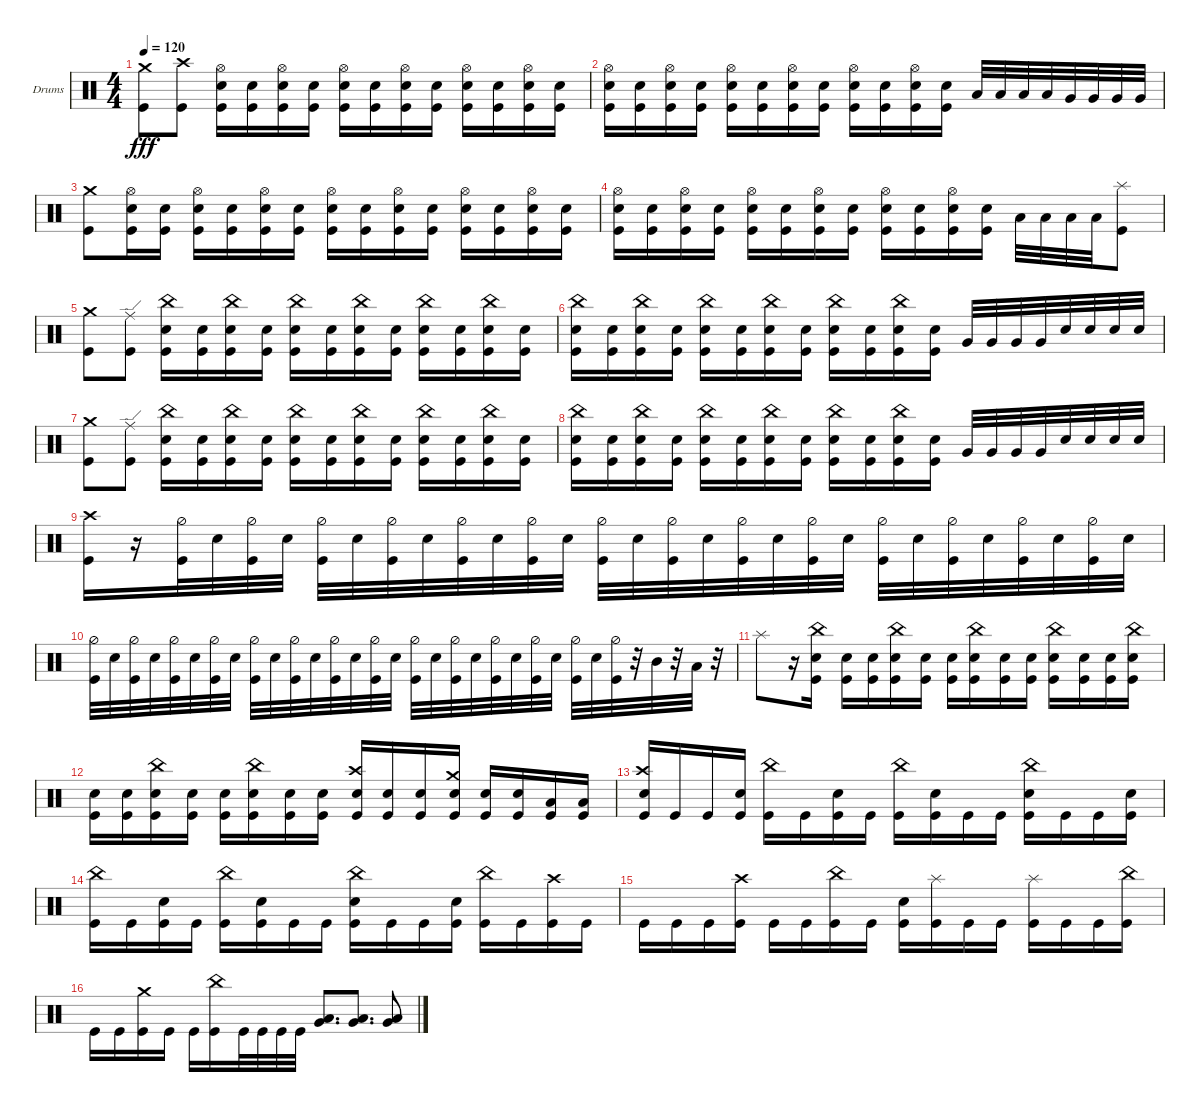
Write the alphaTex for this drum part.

\bracketExtendMode groupsimilarinstruments
\firstSystemTrackNameOrientation horizontal
\otherSystemsTrackNameOrientation horizontal
\track ("Drumkit" "Drums") {instrument percussion}
\staff {score}
\articulation defaults
\ts (4 4)
\tempo 120
\clef neutral
\ks c
("Kick (hit)" "Crash medium (hit)").8{dy fff} ("Crash high (hit)" "Kick (hit)").8 ("Kick (hit)" "Snare (hit) 2" "Hi-Hat (open)").16 ("Kick (hit)" "Snare (hit) 2").16 ("Kick (hit)" "Snare (hit) 2" "Hi-Hat (open)").16 ("Kick (hit)" "Snare (hit) 2").16 ("Kick (hit)" "Snare (hit) 2" "Hi-Hat (open)").16 ("Kick (hit)" "Snare (hit) 2").16 ("Kick (hit)" "Snare (hit) 2" "Hi-Hat (open)").16 ("Kick (hit)" "Snare (hit) 2").16 ("Kick (hit)" "Snare (hit) 2" "Hi-Hat (open)").16 ("Kick (hit)" "Snare (hit) 2").16 ("Kick (hit)" "Snare (hit) 2" "Hi-Hat (open)").16 ("Kick (hit)" "Snare (hit) 2").16 |
("Kick (hit)" "Snare (hit) 2" "Hi-Hat (open)").16 ("Kick (hit)" "Snare (hit) 2").16 ("Kick (hit)" "Snare (hit) 2" "Hi-Hat (open)").16 ("Kick (hit)" "Snare (hit) 2").16 ("Kick (hit)" "Snare (hit) 2" "Hi-Hat (open)").16 ("Kick (hit)" "Snare (hit) 2").16 ("Kick (hit)" "Snare (hit) 2" "Hi-Hat (open)").16 ("Kick (hit)" "Snare (hit) 2").16 ("Kick (hit)" "Snare (hit) 2" "Hi-Hat (open)").16 ("Kick (hit)" "Snare (hit) 2").16 ("Kick (hit)" "Snare (hit) 2" "Hi-Hat (open)").16 ("Kick (hit)" "Snare (hit) 2").16 "Low Tom (hit)".32 "Low Tom (hit)".32 "Low Tom (hit)".32 "Low Tom (hit)".32 "Very Low Tom (hit)".32 "Very Low Tom (hit)".32 "Very Low Tom (hit)".32 "Very Low Tom (hit)".32 |
("Kick (hit)" "Crash medium (hit)").8 ("Kick (hit)" "Snare (hit) 2" "Hi-Hat (open)").16 ("Kick (hit)" "Snare (hit) 2").16 ("Kick (hit)" "Snare (hit) 2" "Hi-Hat (open)").16 ("Kick (hit)" "Snare (hit) 2").16 ("Kick (hit)" "Snare (hit) 2" "Hi-Hat (open)").16 ("Kick (hit)" "Snare (hit) 2").16 ("Kick (hit)" "Snare (hit) 2" "Hi-Hat (open)").16 ("Kick (hit)" "Snare (hit) 2").16 ("Kick (hit)" "Snare (hit) 2" "Hi-Hat (open)").16 ("Kick (hit)" "Snare (hit) 2").16 ("Kick (hit)" "Snare (hit) 2" "Hi-Hat (open)").16 ("Kick (hit)" "Snare (hit) 2").16 ("Kick (hit)" "Snare (hit) 2" "Hi-Hat (open)").16 ("Kick (hit)" "Snare (hit) 2").16 |
("Kick (hit)" "Snare (hit) 2" "Hi-Hat (open)").16 ("Kick (hit)" "Snare (hit) 2").16 ("Kick (hit)" "Snare (hit) 2" "Hi-Hat (open)").16 ("Kick (hit)" "Snare (hit) 2").16 ("Kick (hit)" "Snare (hit) 2" "Hi-Hat (open)").16 ("Kick (hit)" "Snare (hit) 2").16 ("Kick (hit)" "Snare (hit) 2" "Hi-Hat (open)").16 ("Kick (hit)" "Snare (hit) 2").16 ("Kick (hit)" "Snare (hit) 2" "Hi-Hat (open)").16 ("Kick (hit)" "Snare (hit) 2").16 ("Kick (hit)" "Snare (hit) 2" "Hi-Hat (open)").16 ("Kick (hit)" "Snare (hit) 2").16 "Low Tom (hit)".32 "Low Tom (hit)".32 "Low Tom (hit)".32 "Low Tom (hit)".32 ("Kick (hit)" "Splash (hit)").8 |
("Kick (hit)" "Crash medium (hit)").8 ("Kick (hit)" "Ride (edge)").8 ("Kick (hit)" "Snare (hit) 2" "China (hit)").16 ("Kick (hit)" "Snare (hit) 2").16 ("Kick (hit)" "Snare (hit) 2" "China (hit)").16 ("Kick (hit)" "Snare (hit) 2").16 ("Kick (hit)" "Snare (hit) 2" "China (hit)").16 ("Kick (hit)" "Snare (hit) 2").16 ("Kick (hit)" "Snare (hit) 2" "China (hit)").16 ("Kick (hit)" "Snare (hit) 2").16 ("Kick (hit)" "Snare (hit) 2" "China (hit)").16 ("Kick (hit)" "Snare (hit) 2").16 ("Kick (hit)" "Snare (hit) 2" "China (hit)").16 ("Kick (hit)" "Snare (hit) 2").16 |
("Kick (hit)" "Snare (hit) 2" "China (hit)").16 ("Kick (hit)" "Snare (hit) 2").16 ("Kick (hit)" "Snare (hit) 2" "China (hit)").16 ("Kick (hit)" "Snare (hit) 2").16 ("Kick (hit)" "Snare (hit) 2" "China (hit)").16 ("Kick (hit)" "Snare (hit) 2").16 ("Kick (hit)" "Snare (hit) 2" "China (hit)").16 ("Kick (hit)" "Snare (hit) 2").16 ("Kick (hit)" "Snare (hit) 2" "China (hit)").16 ("Kick (hit)" "Snare (hit) 2").16 ("Kick (hit)" "Snare (hit) 2" "China (hit)").16 ("Kick (hit)" "Snare (hit) 2").16 "Very Low Tom (hit)".32 "Very Low Tom (hit)".32 "Very Low Tom (hit)".32 "Very Low Tom (hit)".32 "Snare (hit) 2".32 "Snare (hit) 2".32 "Snare (hit) 2".32 "Snare (hit) 2".32 |
("Kick (hit)" "Crash medium (hit)").8 ("Kick (hit)" "Ride (edge)").8 ("Kick (hit)" "Snare (hit) 2" "China (hit)").16 ("Kick (hit)" "Snare (hit) 2").16 ("Kick (hit)" "Snare (hit) 2" "China (hit)").16 ("Kick (hit)" "Snare (hit) 2").16 ("Kick (hit)" "Snare (hit) 2" "China (hit)").16 ("Kick (hit)" "Snare (hit) 2").16 ("Kick (hit)" "Snare (hit) 2" "China (hit)").16 ("Kick (hit)" "Snare (hit) 2").16 ("Kick (hit)" "Snare (hit) 2" "China (hit)").16 ("Kick (hit)" "Snare (hit) 2").16 ("Kick (hit)" "Snare (hit) 2" "China (hit)").16 ("Kick (hit)" "Snare (hit) 2").16 |
("Kick (hit)" "Snare (hit) 2" "China (hit)").16 ("Kick (hit)" "Snare (hit) 2").16 ("Kick (hit)" "Snare (hit) 2" "China (hit)").16 ("Kick (hit)" "Snare (hit) 2").16 ("Kick (hit)" "Snare (hit) 2" "China (hit)").16 ("Kick (hit)" "Snare (hit) 2").16 ("Kick (hit)" "Snare (hit) 2" "China (hit)").16 ("Kick (hit)" "Snare (hit) 2").16 ("Kick (hit)" "Snare (hit) 2" "China (hit)").16 ("Kick (hit)" "Snare (hit) 2").16 ("Kick (hit)" "Snare (hit) 2" "China (hit)").16 ("Kick (hit)" "Snare (hit) 2").16 "Very Low Tom (hit)".32 "Very Low Tom (hit)".32 "Very Low Tom (hit)".32 "Very Low Tom (hit)".32 "Snare (hit) 2".32 "Snare (hit) 2".32 "Snare (hit) 2".32 "Snare (hit) 2".32 |
("Kick (hit)" "Crash high (hit)").16 r.16 ("Kick (hit)" "Hi-Hat (half)").32 "Snare (hit) 2".32 ("Kick (hit)" "Hi-Hat (half)").32 "Snare (hit) 2".32 ("Kick (hit)" "Hi-Hat (half)").32 "Snare (hit) 2".32 ("Kick (hit)" "Hi-Hat (half)").32 "Snare (hit) 2".32 ("Kick (hit)" "Hi-Hat (half)").32 "Snare (hit) 2".32 ("Kick (hit)" "Hi-Hat (half)").32 "Snare (hit) 2".32 ("Kick (hit)" "Hi-Hat (half)").32 "Snare (hit) 2".32 ("Kick (hit)" "Hi-Hat (half)").32 "Snare (hit) 2".32 ("Kick (hit)" "Hi-Hat (half)").32 "Snare (hit) 2".32 ("Kick (hit)" "Hi-Hat (half)").32 "Snare (hit) 2".32 ("Kick (hit)" "Hi-Hat (half)").32 "Snare (hit) 2".32 ("Kick (hit)" "Hi-Hat (half)").32 "Snare (hit) 2".32 ("Kick (hit)" "Hi-Hat (half)").32 "Snare (hit) 2".32 ("Kick (hit)" "Hi-Hat (half)").32 "Snare (hit) 2".32 |
("Kick (hit)" "Hi-Hat (half)").32 "Snare (hit) 2".32 ("Kick (hit)" "Hi-Hat (half)").32 "Snare (hit) 2".32 ("Kick (hit)" "Hi-Hat (half)").32 "Snare (hit) 2".32 ("Kick (hit)" "Hi-Hat (half)").32 "Snare (hit) 2".32 ("Kick (hit)" "Hi-Hat (half)").32 "Snare (hit) 2".32 ("Kick (hit)" "Hi-Hat (half)").32 "Snare (hit) 2".32 ("Kick (hit)" "Hi-Hat (half)").32 "Snare (hit) 2".32 ("Kick (hit)" "Hi-Hat (half)").32 "Snare (hit) 2".32 ("Kick (hit)" "Hi-Hat (half)").32 "Snare (hit) 2".32 ("Kick (hit)" "Hi-Hat (half)").32 "Snare (hit) 2".32 ("Kick (hit)" "Hi-Hat (half)").32 "Snare (hit) 2".32 ("Kick (hit)" "Hi-Hat (half)").32 "Snare (hit) 2".32 ("Kick (hit)" "Hi-Hat (half)").32 "Snare (hit) 2".32 ("Kick (hit)" "Hi-Hat (half)").32 r.32 "Mid Tom (hit)".32 r.32 "Low Tom (hit)".32 r.32 |
"Splash (hit)".8 r.16 ("Snare (hit) 2" "China (hit)" "Kick (hit)").16 ("Snare (hit) 2" "Kick (hit)").16 ("Snare (hit) 2" "Kick (hit)").16 ("Snare (hit) 2" "China (hit)" "Kick (hit)").16 ("Snare (hit) 2" "Kick (hit)").16 ("Snare (hit) 2" "Kick (hit)").16 ("Snare (hit) 2" "China (hit)" "Kick (hit)").16 ("Snare (hit) 2" "Kick (hit)").16 ("Snare (hit) 2" "Kick (hit)").16 ("Snare (hit) 2" "China (hit)" "Kick (hit)").16 ("Snare (hit) 2" "Kick (hit)").16 ("Snare (hit) 2" "Kick (hit)").16 ("Snare (hit) 2" "China (hit)" "Kick (hit)").16 |
("Snare (hit) 2" "Kick (hit)").16 ("Snare (hit) 2" "Kick (hit)").16 ("Snare (hit) 2" "China (hit)" "Kick (hit)").16 ("Snare (hit) 2" "Kick (hit)").16 ("Snare (hit) 2" "Kick (hit)").16 ("Snare (hit) 2" "China (hit)" "Kick (hit)").16 ("Snare (hit) 2" "Kick (hit)").16 ("Snare (hit) 2" "Kick (hit)").16 ("Snare (hit) 2" "Kick (hit)" "Crash high (hit)").16 ("Snare (hit) 2" "Kick (hit)").16 ("Snare (hit) 2" "Kick (hit)").16 ("Snare (hit) 2" "Kick (hit)" "Crash medium (hit)").16 ("Snare (hit) 2" "Kick (hit)").16 ("Snare (hit) 2" "Kick (hit)").16 ("Low Tom (hit)" "Kick (hit)").16 ("Low Tom (hit)" "Kick (hit)").16 |
("Snare (hit) 2" "Crash high (hit)" "Kick (hit)").16 "Kick (hit)".16 "Kick (hit)".16 ("Snare (hit) 2" "Kick (hit)").16 ("China (hit)" "Kick (hit)").16 "Kick (hit)".16 ("Snare (hit) 2" "Kick (hit)").16 "Kick (hit)".16 ("China (hit)" "Kick (hit)").16 ("Snare (hit) 2" "Kick (hit)").16 "Kick (hit)".16 "Kick (hit)".16 ("China (hit)" "Snare (hit) 2" "Kick (hit)").16 "Kick (hit)".16 "Kick (hit)".16 ("Snare (hit) 2" "Kick (hit)").16 |
("China (hit)" "Kick (hit)").16 "Kick (hit)".16 ("Kick (hit)" "Snare (hit) 2").16 "Kick (hit)".16 ("China (hit)" "Kick (hit)").16 ("Kick (hit)" "Snare (hit) 2").16 "Kick (hit)".16 "Kick (hit)".16 ("China (hit)" "Snare (hit) 2" "Kick (hit)").16 "Kick (hit)".16 "Kick (hit)".16 ("Kick (hit)" "Snare (hit) 2").16 ("China (hit)" "Kick (hit)").16 "Kick (hit)".16 ("Kick (hit)" "Crash high (hit)").16 "Kick (hit)".16 |
"Kick (hit)".16 "Kick (hit)".16 "Kick (hit)".16 ("Kick (hit)" "Crash high (hit)").16 "Kick (hit)".16 "Kick (hit)".16 ("Kick (hit)" "China (hit)").16 "Kick (hit)".16 ("Snare (hit) 2" "Kick (hit)").16 ("Kick (hit)" "Splash (hit)").16 "Kick (hit)".16 "Kick (hit)".16 ("Kick (hit)" "Splash (hit)").16 "Kick (hit)".16 "Kick (hit)".16 ("Kick (hit)" "China (hit)").16 |
"Kick (hit)".16 "Kick (hit)".16 ("Kick (hit)" "Crash medium (hit)").16 "Kick (hit)".16 "Kick (hit)".16 ("Kick (hit)" "China (hit)").16 "Kick (hit)".32 "Kick (hit)".32 "Kick (hit)".32 "Kick (hit)".32 ("Very Low Tom (hit)" "Low Tom (hit)").8{d} ("Very Low Tom (hit)" "Low Tom (hit)").8{d} ("Very Low Tom (hit)" "Low Tom (hit)").8
